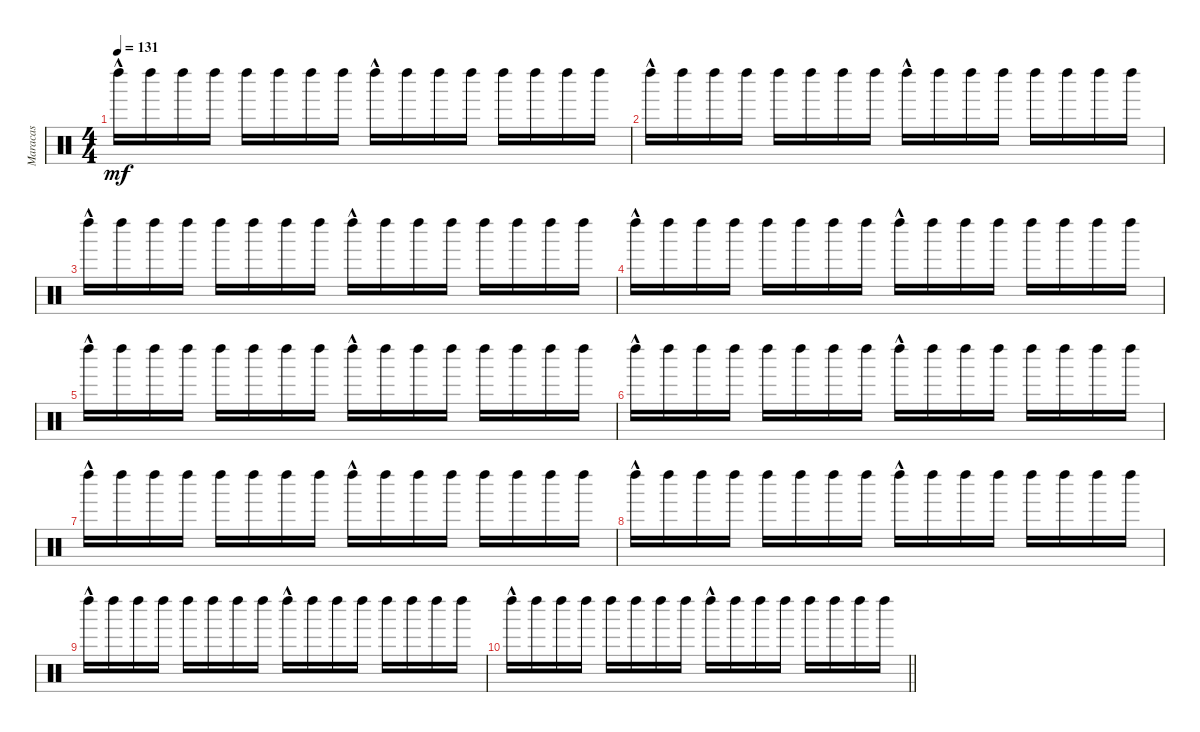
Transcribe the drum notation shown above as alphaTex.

\track ("Maracas" "Maracas") {instrument percussion}
\staff {score}
\articulation defaults
\ts (4 4)
\tempo 131
\clef neutral
\ks c "Left Maraca (hit)"{hac}.16{dy mf} "Left Maraca (hit)".16 "Left Maraca (hit)".16 "Left Maraca (hit)".16 "Left Maraca (hit)".16 "Left Maraca (hit)".16 "Left Maraca (hit)".16 "Left Maraca (hit)".16 "Left Maraca (hit)"{hac}.16 "Left Maraca (hit)".16 "Left Maraca (hit)".16 "Left Maraca (hit)".16 "Left Maraca (hit)".16 "Left Maraca (hit)".16 "Left Maraca (hit)".16 "Left Maraca (hit)".16
|
"Left Maraca (hit)"{hac}.16 "Left Maraca (hit)".16 "Left Maraca (hit)".16 "Left Maraca (hit)".16 "Left Maraca (hit)".16 "Left Maraca (hit)".16 "Left Maraca (hit)".16 "Left Maraca (hit)".16 "Left Maraca (hit)"{hac}.16 "Left Maraca (hit)".16 "Left Maraca (hit)".16 "Left Maraca (hit)".16 "Left Maraca (hit)".16 "Left Maraca (hit)".16 "Left Maraca (hit)".16 "Left Maraca (hit)".16 |
"Left Maraca (hit)"{hac}.16 "Left Maraca (hit)".16 "Left Maraca (hit)".16 "Left Maraca (hit)".16 "Left Maraca (hit)".16 "Left Maraca (hit)".16 "Left Maraca (hit)".16 "Left Maraca (hit)".16 "Left Maraca (hit)"{hac}.16 "Left Maraca (hit)".16 "Left Maraca (hit)".16 "Left Maraca (hit)".16 "Left Maraca (hit)".16 "Left Maraca (hit)".16 "Left Maraca (hit)".16 "Left Maraca (hit)".16 |
"Left Maraca (hit)"{hac}.16 "Left Maraca (hit)".16 "Left Maraca (hit)".16 "Left Maraca (hit)".16 "Left Maraca (hit)".16 "Left Maraca (hit)".16 "Left Maraca (hit)".16 "Left Maraca (hit)".16 "Left Maraca (hit)"{hac}.16 "Left Maraca (hit)".16 "Left Maraca (hit)".16 "Left Maraca (hit)".16 "Left Maraca (hit)".16 "Left Maraca (hit)".16 "Left Maraca (hit)".16 "Left Maraca (hit)".16 |
"Left Maraca (hit)"{hac}.16 "Left Maraca (hit)".16 "Left Maraca (hit)".16 "Left Maraca (hit)".16 "Left Maraca (hit)".16 "Left Maraca (hit)".16 "Left Maraca (hit)".16 "Left Maraca (hit)".16 "Left Maraca (hit)"{hac}.16 "Left Maraca (hit)".16 "Left Maraca (hit)".16 "Left Maraca (hit)".16 "Left Maraca (hit)".16 "Left Maraca (hit)".16 "Left Maraca (hit)".16 "Left Maraca (hit)".16 |
"Left Maraca (hit)"{hac}.16 "Left Maraca (hit)".16 "Left Maraca (hit)".16 "Left Maraca (hit)".16 "Left Maraca (hit)".16 "Left Maraca (hit)".16 "Left Maraca (hit)".16 "Left Maraca (hit)".16 "Left Maraca (hit)"{hac}.16 "Left Maraca (hit)".16 "Left Maraca (hit)".16 "Left Maraca (hit)".16 "Left Maraca (hit)".16 "Left Maraca (hit)".16 "Left Maraca (hit)".16 "Left Maraca (hit)".16 |
"Left Maraca (hit)"{hac}.16 "Left Maraca (hit)".16 "Left Maraca (hit)".16 "Left Maraca (hit)".16 "Left Maraca (hit)".16 "Left Maraca (hit)".16 "Left Maraca (hit)".16 "Left Maraca (hit)".16 "Left Maraca (hit)"{hac}.16 "Left Maraca (hit)".16 "Left Maraca (hit)".16 "Left Maraca (hit)".16 "Left Maraca (hit)".16 "Left Maraca (hit)".16 "Left Maraca (hit)".16 "Left Maraca (hit)".16 |
"Left Maraca (hit)"{hac}.16 "Left Maraca (hit)".16 "Left Maraca (hit)".16 "Left Maraca (hit)".16 "Left Maraca (hit)".16 "Left Maraca (hit)".16 "Left Maraca (hit)".16 "Left Maraca (hit)".16 "Left Maraca (hit)"{hac}.16 "Left Maraca (hit)".16 "Left Maraca (hit)".16 "Left Maraca (hit)".16 "Left Maraca (hit)".16 "Left Maraca (hit)".16 "Left Maraca (hit)".16 "Left Maraca (hit)".16 |
"Left Maraca (hit)"{hac}.16 "Left Maraca (hit)".16 "Left Maraca (hit)".16 "Left Maraca (hit)".16 "Left Maraca (hit)".16 "Left Maraca (hit)".16 "Left Maraca (hit)".16 "Left Maraca (hit)".16 "Left Maraca (hit)"{hac}.16 "Left Maraca (hit)".16 "Left Maraca (hit)".16 "Left Maraca (hit)".16 "Left Maraca (hit)".16 "Left Maraca (hit)".16 "Left Maraca (hit)".16 "Left Maraca (hit)".16 |
\barLineRight lightlight "Left Maraca (hit)"{hac}.16 "Left Maraca (hit)".16 "Left Maraca (hit)".16 "Left Maraca (hit)".16 "Left Maraca (hit)".16 "Left Maraca (hit)".16 "Left Maraca (hit)".16 "Left Maraca (hit)".16 "Left Maraca (hit)"{hac}.16 "Left Maraca (hit)".16 "Left Maraca (hit)".16 "Left Maraca (hit)".16 "Left Maraca (hit)".16 "Left Maraca (hit)".16 "Left Maraca (hit)".16 "Left Maraca (hit)".16
